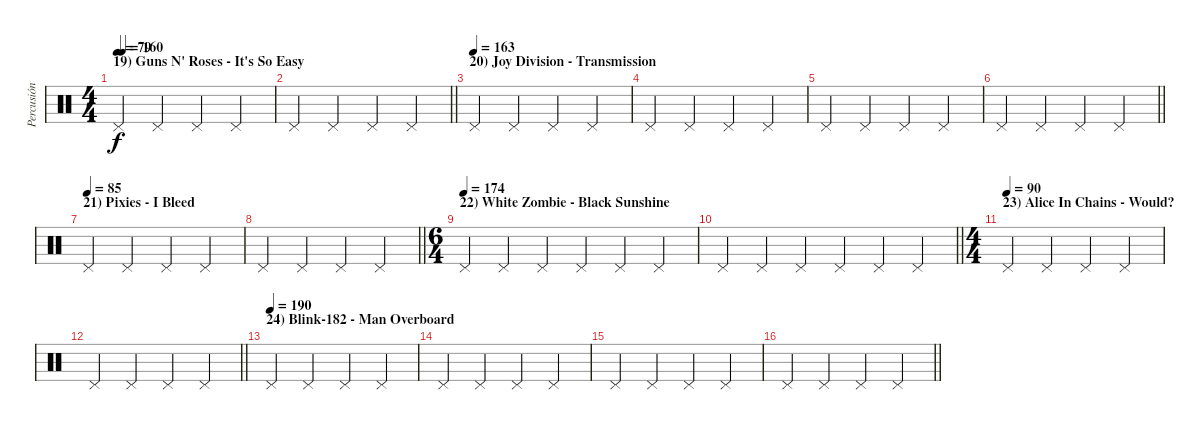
\track ("Percusión" "Percusión") {instrument percussion}
\staff {score}
\articulation defaults
\ts (4 4)
\section ("" "19) Guns N' Roses - It's So Easy")
\tempo 79
\tempo (160 0.03125)
\clef neutral
\ks c "Pedal Hi-Hat (hit)".4{dy f} "Pedal Hi-Hat (hit)".4 "Pedal Hi-Hat (hit)".4 "Pedal Hi-Hat (hit)".4
|
\barLineRight lightlight "Pedal Hi-Hat (hit)".4 "Pedal Hi-Hat (hit)".4 "Pedal Hi-Hat (hit)".4 "Pedal Hi-Hat (hit)".4
|
\section ("" "20) Joy Division - Transmission")
\tempo (163)
"Pedal Hi-Hat (hit)".4 "Pedal Hi-Hat (hit)".4 "Pedal Hi-Hat (hit)".4 "Pedal Hi-Hat (hit)".4 |
"Pedal Hi-Hat (hit)".4 "Pedal Hi-Hat (hit)".4 "Pedal Hi-Hat (hit)".4 "Pedal Hi-Hat (hit)".4 |
"Pedal Hi-Hat (hit)".4 "Pedal Hi-Hat (hit)".4 "Pedal Hi-Hat (hit)".4 "Pedal Hi-Hat (hit)".4 |
\barLineRight lightlight "Pedal Hi-Hat (hit)".4 "Pedal Hi-Hat (hit)".4 "Pedal Hi-Hat (hit)".4 "Pedal Hi-Hat (hit)".4
|
\section ("" "21) Pixies - I Bleed")
\tempo (85)
"Pedal Hi-Hat (hit)".4 "Pedal Hi-Hat (hit)".4 "Pedal Hi-Hat (hit)".4 "Pedal Hi-Hat (hit)".4 |
\barLineRight lightlight "Pedal Hi-Hat (hit)".4 "Pedal Hi-Hat (hit)".4 "Pedal Hi-Hat (hit)".4 "Pedal Hi-Hat (hit)".4
|
\ts (6 4)
\section ("" "22) White Zombie - Black Sunshine")
\tempo (174)
"Pedal Hi-Hat (hit)".4 "Pedal Hi-Hat (hit)".4 "Pedal Hi-Hat (hit)".4 "Pedal Hi-Hat (hit)".4 "Pedal Hi-Hat (hit)".4 "Pedal Hi-Hat (hit)".4 |
\barLineRight lightlight "Pedal Hi-Hat (hit)".4 "Pedal Hi-Hat (hit)".4 "Pedal Hi-Hat (hit)".4 "Pedal Hi-Hat (hit)".4 "Pedal Hi-Hat (hit)".4 "Pedal Hi-Hat (hit)".4
|
\ts (4 4)
\section ("" "23) Alice In Chains - Would?")
\tempo (90)
"Pedal Hi-Hat (hit)".4 "Pedal Hi-Hat (hit)".4 "Pedal Hi-Hat (hit)".4 "Pedal Hi-Hat (hit)".4 |
\barLineRight lightlight "Pedal Hi-Hat (hit)".4 "Pedal Hi-Hat (hit)".4 "Pedal Hi-Hat (hit)".4 "Pedal Hi-Hat (hit)".4
|
\section ("" "24) Blink-182 - Man Overboard")
\tempo (190)
"Pedal Hi-Hat (hit)".4 "Pedal Hi-Hat (hit)".4 "Pedal Hi-Hat (hit)".4 "Pedal Hi-Hat (hit)".4 |
"Pedal Hi-Hat (hit)".4 "Pedal Hi-Hat (hit)".4 "Pedal Hi-Hat (hit)".4 "Pedal Hi-Hat (hit)".4 |
"Pedal Hi-Hat (hit)".4 "Pedal Hi-Hat (hit)".4 "Pedal Hi-Hat (hit)".4 "Pedal Hi-Hat (hit)".4 |
\barLineRight lightlight "Pedal Hi-Hat (hit)".4 "Pedal Hi-Hat (hit)".4 "Pedal Hi-Hat (hit)".4 "Pedal Hi-Hat (hit)".4
